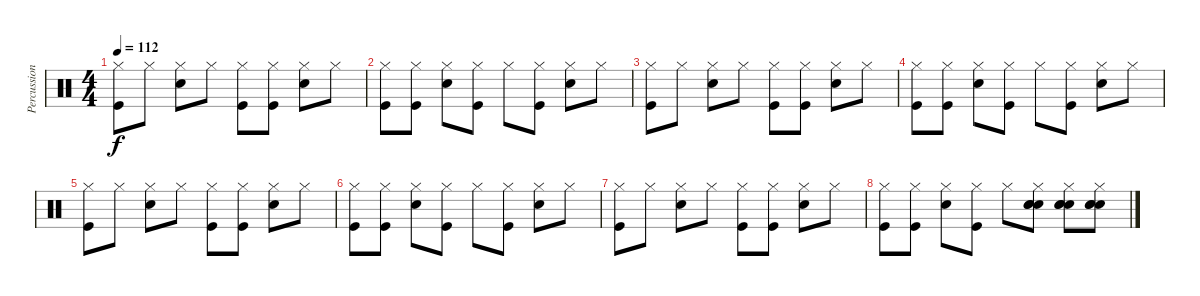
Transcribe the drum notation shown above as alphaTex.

\track ("Percussion" "Percussion") {instrument percussion}
\staff {score}
\articulation defaults
\ts (4 4)
\tempo 112
\clef neutral
\ks c
("Hi-Hat (closed)" "Kick (hit)").8{dy f} "Hi-Hat (closed)".8 ("Hi-Hat (closed)" "Electric Snare (hit)").8 "Hi-Hat (closed)".8 ("Hi-Hat (closed)" "Kick (hit)").8 ("Hi-Hat (closed)" "Kick (hit)").8 ("Hi-Hat (closed)" "Electric Snare (hit)").8 "Hi-Hat (closed)".8 |
("Hi-Hat (closed)" "Kick (hit)").8 ("Hi-Hat (closed)" "Kick (hit)").8 ("Hi-Hat (closed)" "Electric Snare (hit)").8 ("Hi-Hat (closed)" "Kick (hit)").8 "Hi-Hat (closed)".8 ("Hi-Hat (closed)" "Kick (hit)").8 ("Hi-Hat (closed)" "Electric Snare (hit)").8 "Hi-Hat (closed)".8 |
("Hi-Hat (closed)" "Kick (hit)").8 "Hi-Hat (closed)".8 ("Hi-Hat (closed)" "Electric Snare (hit)").8 "Hi-Hat (closed)".8 ("Hi-Hat (closed)" "Kick (hit)").8 ("Hi-Hat (closed)" "Kick (hit)").8 ("Hi-Hat (closed)" "Electric Snare (hit)").8 "Hi-Hat (closed)".8 |
("Hi-Hat (closed)" "Kick (hit)").8 ("Hi-Hat (closed)" "Kick (hit)").8 ("Hi-Hat (closed)" "Electric Snare (hit)").8 ("Hi-Hat (closed)" "Kick (hit)").8 "Hi-Hat (closed)".8 ("Hi-Hat (closed)" "Kick (hit)").8 ("Hi-Hat (closed)" "Electric Snare (hit)").8 "Hi-Hat (closed)".8 |
("Hi-Hat (closed)" "Kick (hit)").8 "Hi-Hat (closed)".8 ("Hi-Hat (closed)" "Electric Snare (hit)").8 "Hi-Hat (closed)".8 ("Hi-Hat (closed)" "Kick (hit)").8 ("Hi-Hat (closed)" "Kick (hit)").8 ("Hi-Hat (closed)" "Electric Snare (hit)").8 "Hi-Hat (closed)".8 |
("Hi-Hat (closed)" "Kick (hit)").8 ("Hi-Hat (closed)" "Kick (hit)").8 ("Hi-Hat (closed)" "Electric Snare (hit)").8 ("Hi-Hat (closed)" "Kick (hit)").8 "Hi-Hat (closed)".8 ("Hi-Hat (closed)" "Kick (hit)").8 ("Hi-Hat (closed)" "Electric Snare (hit)").8 "Hi-Hat (closed)".8 |
("Hi-Hat (closed)" "Kick (hit)").8 "Hi-Hat (closed)".8 ("Hi-Hat (closed)" "Electric Snare (hit)").8 "Hi-Hat (closed)".8 ("Hi-Hat (closed)" "Kick (hit)").8 ("Hi-Hat (closed)" "Kick (hit)").8 ("Hi-Hat (closed)" "Electric Snare (hit)").8 "Hi-Hat (closed)".8 |
("Hi-Hat (closed)" "Kick (hit)").8 ("Hi-Hat (closed)" "Kick (hit)").8 ("Hi-Hat (closed)" "Electric Snare (hit)").8 ("Hi-Hat (closed)" "Kick (hit)").8 "Hi-Hat (closed)".8 ("Hi-Hat (closed)" "Electric Snare (hit)" "Electric Snare (hit)" "Electric Snare (hit)").8 ("Hi-Hat (closed)" "Electric Snare (hit)" "Electric Snare (hit)" "Electric Snare (hit)").8 ("Hi-Hat (closed)" "Electric Snare (hit)" "Electric Snare (hit)" "Electric Snare (hit)").8
